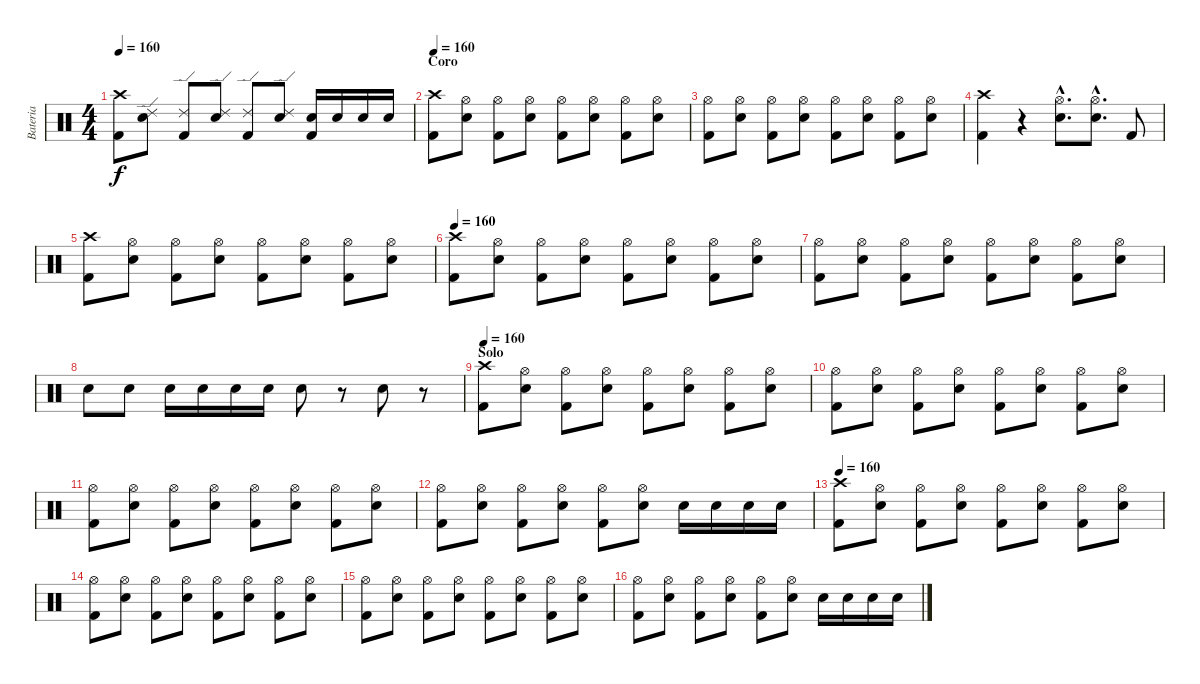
\track ("Bateria" "Bateria") {instrument percussion}
\staff {score}
\articulation defaults
\ts (4 4)
\tempo 160
\clef neutral
\ks c
("Crash high (hit)" "Kick (hit) 2").8{dy f} ("Ride (edge) 2" "Snare (hit) 2").8 ("Ride (edge) 2" "Kick (hit) 2").8 ("Ride (edge) 2" "Snare (hit) 2").8 ("Ride (edge) 2" "Kick (hit) 2").8 ("Ride (edge) 2" "Snare (hit) 2").8 ("Snare (hit) 2" "Kick (hit) 2").16 "Snare (hit) 2".16 "Snare (hit) 2".16 "Snare (hit) 2".16 |
\section ("" "Coro")
\tempo 160
("Crash high (hit)" "Kick (hit) 2").8 ("Hi-Hat (open)" "Snare (hit) 2").8 ("Hi-Hat (open)" "Kick (hit) 2").8 ("Hi-Hat (open)" "Snare (hit) 2").8 ("Hi-Hat (open)" "Kick (hit) 2").8 ("Hi-Hat (open)" "Snare (hit) 2").8 ("Hi-Hat (open)" "Kick (hit) 2").8 ("Hi-Hat (open)" "Snare (hit) 2").8 |
("Hi-Hat (open)" "Kick (hit) 2").8 ("Hi-Hat (open)" "Snare (hit) 2").8 ("Hi-Hat (open)" "Kick (hit) 2").8 ("Hi-Hat (open)" "Snare (hit) 2").8 ("Hi-Hat (open)" "Kick (hit) 2").8 ("Hi-Hat (open)" "Snare (hit) 2").8 ("Hi-Hat (open)" "Kick (hit) 2").8 ("Hi-Hat (open)" "Snare (hit) 2").8 |
("Crash high (hit)" "Kick (hit) 2").4 r.4 ("Hi-Hat (open)"{hac} "Snare (hit) 2"{hac}).8{d} ("Hi-Hat (open)"{hac} "Snare (hit) 2"{hac}).8{d} "Kick (hit) 2".8 |
("Crash high (hit)" "Kick (hit) 2").8 ("Hi-Hat (open)" "Snare (hit) 2").8 ("Hi-Hat (open)" "Kick (hit) 2").8 ("Hi-Hat (open)" "Snare (hit) 2").8 ("Hi-Hat (open)" "Kick (hit) 2").8 ("Hi-Hat (open)" "Snare (hit) 2").8 ("Hi-Hat (open)" "Kick (hit) 2").8 ("Hi-Hat (open)" "Snare (hit) 2").8 |
\tempo 160
("Crash high (hit)" "Kick (hit) 2").8 ("Hi-Hat (open)" "Snare (hit) 2").8 ("Hi-Hat (open)" "Kick (hit) 2").8 ("Hi-Hat (open)" "Snare (hit) 2").8 ("Hi-Hat (open)" "Kick (hit) 2").8 ("Hi-Hat (open)" "Snare (hit) 2").8 ("Hi-Hat (open)" "Kick (hit) 2").8 ("Hi-Hat (open)" "Snare (hit) 2").8 |
("Hi-Hat (open)" "Kick (hit) 2").8 ("Hi-Hat (open)" "Snare (hit) 2").8 ("Hi-Hat (open)" "Kick (hit) 2").8 ("Hi-Hat (open)" "Snare (hit) 2").8 ("Hi-Hat (open)" "Kick (hit) 2").8 ("Hi-Hat (open)" "Snare (hit) 2").8 ("Hi-Hat (open)" "Kick (hit) 2").8 ("Hi-Hat (open)" "Snare (hit) 2").8 |
"Snare (hit) 2".8 "Snare (hit) 2".8 "Snare (hit) 2".16 "Snare (hit) 2".16 "Snare (hit) 2".16 "Snare (hit) 2".16 "Snare (hit) 2".8 r.8 "Snare (hit) 2".8 r.8 |
\section ("" "Solo")
\tempo 160
("Crash high (hit)" "Kick (hit) 2").8 ("Hi-Hat (open)" "Snare (hit) 2").8 ("Hi-Hat (open)" "Kick (hit) 2").8 ("Hi-Hat (open)" "Snare (hit) 2").8 ("Hi-Hat (open)" "Kick (hit) 2").8 ("Hi-Hat (open)" "Snare (hit) 2").8 ("Hi-Hat (open)" "Kick (hit) 2").8 ("Hi-Hat (open)" "Snare (hit) 2").8 |
("Hi-Hat (open)" "Kick (hit) 2").8 ("Hi-Hat (open)" "Snare (hit) 2").8 ("Hi-Hat (open)" "Kick (hit) 2").8 ("Hi-Hat (open)" "Snare (hit) 2").8 ("Hi-Hat (open)" "Kick (hit) 2").8 ("Hi-Hat (open)" "Snare (hit) 2").8 ("Hi-Hat (open)" "Kick (hit) 2").8 ("Hi-Hat (open)" "Snare (hit) 2").8 |
("Hi-Hat (open)" "Kick (hit) 2").8 ("Hi-Hat (open)" "Snare (hit) 2").8 ("Hi-Hat (open)" "Kick (hit) 2").8 ("Hi-Hat (open)" "Snare (hit) 2").8 ("Hi-Hat (open)" "Kick (hit) 2").8 ("Hi-Hat (open)" "Snare (hit) 2").8 ("Hi-Hat (open)" "Kick (hit) 2").8 ("Hi-Hat (open)" "Snare (hit) 2").8 |
("Hi-Hat (open)" "Kick (hit) 2").8 ("Hi-Hat (open)" "Snare (hit) 2").8 ("Hi-Hat (open)" "Kick (hit) 2").8 ("Hi-Hat (open)" "Snare (hit) 2").8 ("Hi-Hat (open)" "Kick (hit) 2").8 ("Hi-Hat (open)" "Snare (hit) 2").8 "Snare (hit) 2".16 "Snare (hit) 2".16 "Snare (hit) 2".16 "Snare (hit) 2".16 |
\tempo 160
("Crash high (hit)" "Kick (hit) 2").8 ("Hi-Hat (open)" "Snare (hit) 2").8 ("Hi-Hat (open)" "Kick (hit) 2").8 ("Hi-Hat (open)" "Snare (hit) 2").8 ("Hi-Hat (open)" "Kick (hit) 2").8 ("Hi-Hat (open)" "Snare (hit) 2").8 ("Hi-Hat (open)" "Kick (hit) 2").8 ("Hi-Hat (open)" "Snare (hit) 2").8 |
("Hi-Hat (open)" "Kick (hit) 2").8 ("Hi-Hat (open)" "Snare (hit) 2").8 ("Hi-Hat (open)" "Kick (hit) 2").8 ("Hi-Hat (open)" "Snare (hit) 2").8 ("Hi-Hat (open)" "Kick (hit) 2").8 ("Hi-Hat (open)" "Snare (hit) 2").8 ("Hi-Hat (open)" "Kick (hit) 2").8 ("Hi-Hat (open)" "Snare (hit) 2").8 |
("Hi-Hat (open)" "Kick (hit) 2").8 ("Hi-Hat (open)" "Snare (hit) 2").8 ("Hi-Hat (open)" "Kick (hit) 2").8 ("Hi-Hat (open)" "Snare (hit) 2").8 ("Hi-Hat (open)" "Kick (hit) 2").8 ("Hi-Hat (open)" "Snare (hit) 2").8 ("Hi-Hat (open)" "Kick (hit) 2").8 ("Hi-Hat (open)" "Snare (hit) 2").8 |
("Hi-Hat (open)" "Kick (hit) 2").8 ("Hi-Hat (open)" "Snare (hit) 2").8 ("Hi-Hat (open)" "Kick (hit) 2").8 ("Hi-Hat (open)" "Snare (hit) 2").8 ("Hi-Hat (open)" "Kick (hit) 2").8 ("Hi-Hat (open)" "Snare (hit) 2").8 "Snare (hit) 2".16 "Snare (hit) 2".16 "Snare (hit) 2".16 "Snare (hit) 2".16
